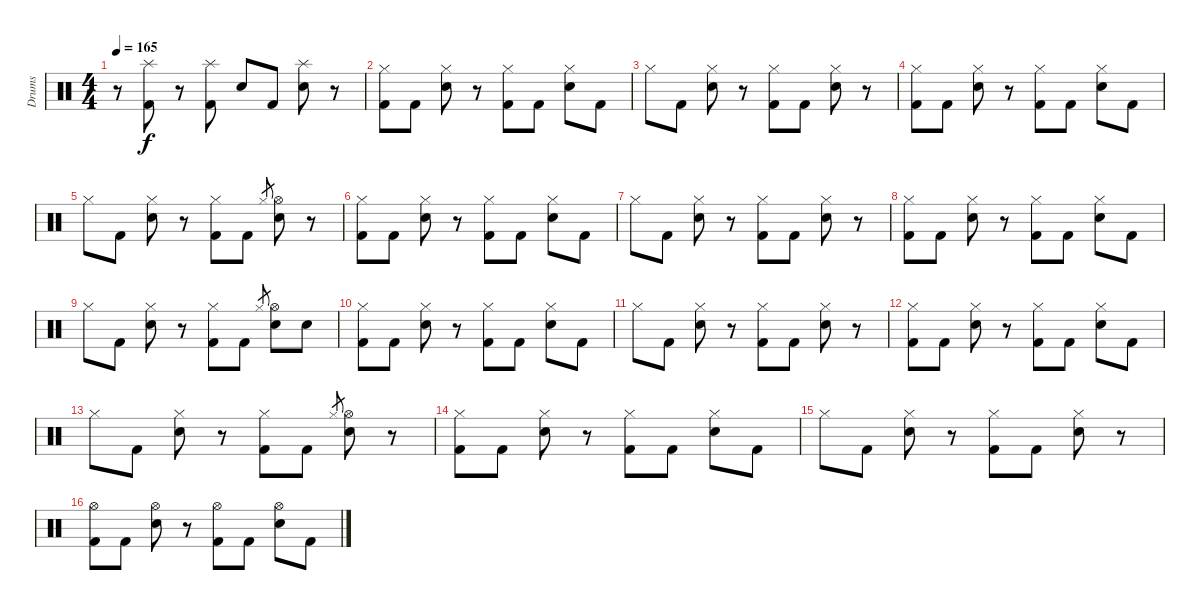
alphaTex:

\track ("Drums" "Drums") {instrument percussion}
\staff {score}
\articulation defaults
\ts (4 4)
\tempo 165
\clef neutral
\ks c
r.8{dy f} ("Splash (hit)" "Kick (hit) 2").8 r.8 ("Splash (hit)" "Kick (hit) 2").8 "Electric Snare (hit)".8 "Kick (hit) 2".8 ("Splash (hit)" "Electric Snare (hit)").8 r.8 |
("Hi-Hat (closed)" "Kick (hit) 2").8 "Kick (hit) 2".8 ("Hi-Hat (closed)" "Electric Snare (hit)").8 r.8 ("Hi-Hat (closed)" "Kick (hit) 2").8 "Kick (hit) 2".8 ("Hi-Hat (closed)" "Electric Snare (hit)").8 "Kick (hit) 2".8 |
"Hi-Hat (closed)".8 "Kick (hit) 2".8 ("Hi-Hat (closed)" "Electric Snare (hit)").8 r.8 ("Hi-Hat (closed)" "Kick (hit) 2").8 "Kick (hit) 2".8 ("Hi-Hat (closed)" "Electric Snare (hit)").8 r.8 |
("Hi-Hat (closed)" "Kick (hit) 2").8 "Kick (hit) 2".8 ("Hi-Hat (closed)" "Electric Snare (hit)").8 r.8 ("Hi-Hat (closed)" "Kick (hit) 2").8 "Kick (hit) 2".8 ("Hi-Hat (closed)" "Electric Snare (hit)").8 "Kick (hit) 2".8 |
"Hi-Hat (closed)".8 "Kick (hit) 2".8 ("Hi-Hat (closed)" "Electric Snare (hit)").8 r.8 ("Hi-Hat (closed)" "Kick (hit) 2").8 "Kick (hit) 2".8 "Hi-Hat (closed)".8{gr} ("Hi-Hat (open)" "Electric Snare (hit)").8 r.8 |
("Hi-Hat (closed)" "Kick (hit) 2").8 "Kick (hit) 2".8 ("Hi-Hat (closed)" "Electric Snare (hit)").8 r.8 ("Hi-Hat (closed)" "Kick (hit) 2").8 "Kick (hit) 2".8 ("Hi-Hat (closed)" "Electric Snare (hit)").8 "Kick (hit) 2".8 |
"Hi-Hat (closed)".8 "Kick (hit) 2".8 ("Hi-Hat (closed)" "Electric Snare (hit)").8 r.8 ("Hi-Hat (closed)" "Kick (hit) 2").8 "Kick (hit) 2".8 ("Hi-Hat (closed)" "Electric Snare (hit)").8 r.8 |
("Hi-Hat (closed)" "Kick (hit) 2").8 "Kick (hit) 2".8 ("Hi-Hat (closed)" "Electric Snare (hit)").8 r.8 ("Hi-Hat (closed)" "Kick (hit) 2").8 "Kick (hit) 2".8 ("Hi-Hat (closed)" "Electric Snare (hit)").8 "Kick (hit) 2".8 |
"Hi-Hat (closed)".8 "Kick (hit) 2".8 ("Hi-Hat (closed)" "Electric Snare (hit)").8 r.8 ("Hi-Hat (closed)" "Kick (hit) 2").8 "Kick (hit) 2".8 "Hi-Hat (closed)".8{gr} ("Hi-Hat (open)" "Electric Snare (hit)").8 "Electric Snare (hit)".8 |
("Hi-Hat (closed)" "Kick (hit) 2").8 "Kick (hit) 2".8 ("Hi-Hat (closed)" "Electric Snare (hit)").8 r.8 ("Hi-Hat (closed)" "Kick (hit) 2").8 "Kick (hit) 2".8 ("Hi-Hat (closed)" "Electric Snare (hit)").8 "Kick (hit) 2".8 |
"Hi-Hat (closed)".8 "Kick (hit) 2".8 ("Hi-Hat (closed)" "Electric Snare (hit)").8 r.8 ("Hi-Hat (closed)" "Kick (hit) 2").8 "Kick (hit) 2".8 ("Hi-Hat (closed)" "Electric Snare (hit)").8 r.8 |
("Hi-Hat (closed)" "Kick (hit) 2").8 "Kick (hit) 2".8 ("Hi-Hat (closed)" "Electric Snare (hit)").8 r.8 ("Hi-Hat (closed)" "Kick (hit) 2").8 "Kick (hit) 2".8 ("Hi-Hat (closed)" "Electric Snare (hit)").8 "Kick (hit) 2".8 |
"Hi-Hat (closed)".8 "Kick (hit) 2".8 ("Hi-Hat (closed)" "Electric Snare (hit)").8 r.8 ("Hi-Hat (closed)" "Kick (hit) 2").8 "Kick (hit) 2".8 "Hi-Hat (closed)".8{gr} ("Hi-Hat (open)" "Electric Snare (hit)").8 r.8 |
("Hi-Hat (closed)" "Kick (hit) 2").8 "Kick (hit) 2".8 ("Hi-Hat (closed)" "Electric Snare (hit)").8 r.8 ("Hi-Hat (closed)" "Kick (hit) 2").8 "Kick (hit) 2".8 ("Hi-Hat (closed)" "Electric Snare (hit)").8 "Kick (hit) 2".8 |
"Hi-Hat (closed)".8 "Kick (hit) 2".8 ("Hi-Hat (closed)" "Electric Snare (hit)").8 r.8 ("Hi-Hat (closed)" "Kick (hit) 2").8 "Kick (hit) 2".8 ("Hi-Hat (closed)" "Electric Snare (hit)").8 r.8 |
("Hi-Hat (open)" "Kick (hit) 2").8 "Kick (hit) 2".8 ("Hi-Hat (open)" "Electric Snare (hit)").8 r.8 ("Hi-Hat (open)" "Kick (hit) 2").8 "Kick (hit) 2".8 ("Hi-Hat (open)" "Electric Snare (hit)").8 "Kick (hit) 2".8
